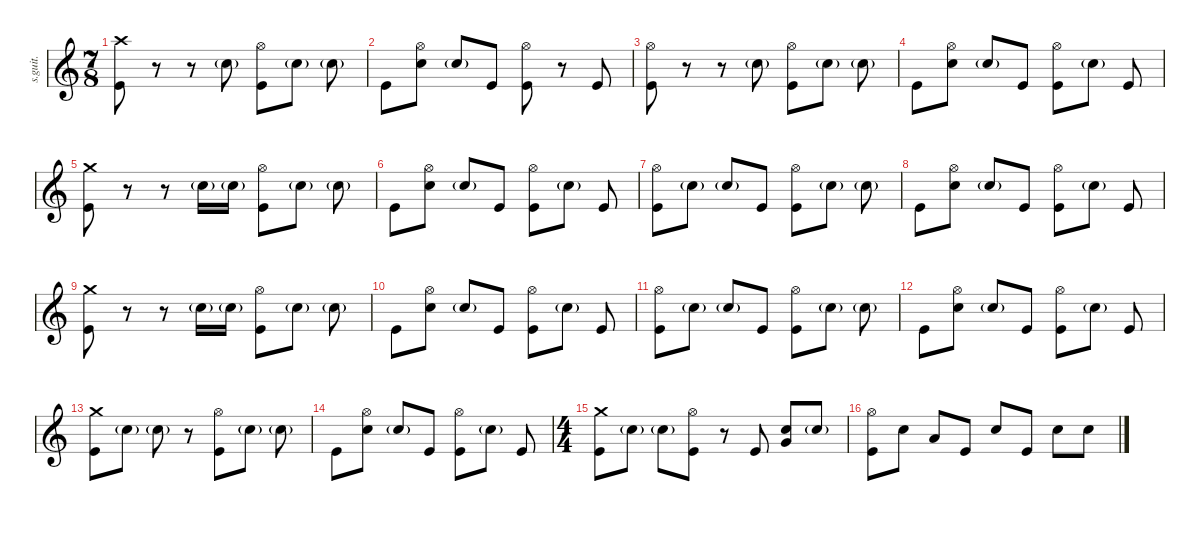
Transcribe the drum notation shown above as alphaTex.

\defaultSystemsLayout 4
\hideDynamics
\bracketExtendMode nobrackets
\track ("Matt Halpern" "s.guit.") {instrument percussion}
\staff {score}
\articulation defaults
\ts (7 8)
\beaming (8 2 2 2 2)
\tempo (213 hide)
\clef g2
\ks c
("Crash high (hit)" "Kick (hit)").8{lyrics (0 "") lyrics (1 "") lyrics (2 "") lyrics (3 "") lyrics (4 "") dy mf} r.8 r.8 "Snare (hit) 2"{g}.8{lyrics (0 "") lyrics (1 "") lyrics (2 "") lyrics (3 "") lyrics (4 "")} ("Hi-Hat (open)" "Kick (hit)").8{lyrics (0 "") lyrics (1 "") lyrics (2 "") lyrics (3 "") lyrics (4 "")} "Snare (hit) 2"{g}.8{lyrics (0 "") lyrics (1 "") lyrics (2 "") lyrics (3 "") lyrics (4 "")} "Snare (hit) 2"{g}.8{lyrics (0 "") lyrics (1 "") lyrics (2 "") lyrics (3 "") lyrics (4 "")} |
"Kick (hit)".8{lyrics (0 "") lyrics (1 "") lyrics (2 "") lyrics (3 "") lyrics (4 "")} ("Snare (hit) 2" "Hi-Hat (open)").8{lyrics (0 "") lyrics (1 "") lyrics (2 "") lyrics (3 "") lyrics (4 "")} "Snare (hit) 2"{g}.8{lyrics (0 "") lyrics (1 "") lyrics (2 "") lyrics (3 "") lyrics (4 "")} "Kick (hit)".8{lyrics (0 "") lyrics (1 "") lyrics (2 "") lyrics (3 "") lyrics (4 "")} ("Hi-Hat (open)" "Kick (hit)").8{lyrics (0 "") lyrics (1 "") lyrics (2 "") lyrics (3 "") lyrics (4 "")} r.8 "Kick (hit)".8{lyrics (0 "") lyrics (1 "") lyrics (2 "") lyrics (3 "") lyrics (4 "")} |
("Hi-Hat (open)" "Kick (hit)").8{lyrics (0 "") lyrics (1 "") lyrics (2 "") lyrics (3 "") lyrics (4 "")} r.8 r.8 "Snare (hit) 2"{g}.8{lyrics (0 "") lyrics (1 "") lyrics (2 "") lyrics (3 "") lyrics (4 "")} ("Hi-Hat (open)" "Kick (hit)").8{lyrics (0 "") lyrics (1 "") lyrics (2 "") lyrics (3 "") lyrics (4 "")} "Snare (hit) 2"{g}.8{lyrics (0 "") lyrics (1 "") lyrics (2 "") lyrics (3 "") lyrics (4 "")} "Snare (hit) 2"{g}.8{lyrics (0 "") lyrics (1 "") lyrics (2 "") lyrics (3 "") lyrics (4 "")} |
"Kick (hit)".8{lyrics (0 "") lyrics (1 "") lyrics (2 "") lyrics (3 "") lyrics (4 "")} ("Snare (hit) 2" "Hi-Hat (open)").8{lyrics (0 "") lyrics (1 "") lyrics (2 "") lyrics (3 "") lyrics (4 "")} "Snare (hit) 2"{g}.8{lyrics (0 "") lyrics (1 "") lyrics (2 "") lyrics (3 "") lyrics (4 "")} "Kick (hit)".8{lyrics (0 "") lyrics (1 "") lyrics (2 "") lyrics (3 "") lyrics (4 "")} ("Hi-Hat (open)" "Kick (hit)").8{lyrics (0 "") lyrics (1 "") lyrics (2 "") lyrics (3 "") lyrics (4 "")} "Snare (hit) 2"{g}.8{lyrics (0 "") lyrics (1 "") lyrics (2 "") lyrics (3 "") lyrics (4 "")} "Kick (hit)".8{lyrics (0 "") lyrics (1 "") lyrics (2 "") lyrics (3 "") lyrics (4 "")} |
("Crash medium (hit)" "Kick (hit)").8{lyrics (0 "") lyrics (1 "") lyrics (2 "") lyrics (3 "") lyrics (4 "")} r.8 r.8 "Snare (hit) 2"{g}.16{lyrics (0 "") lyrics (1 "") lyrics (2 "") lyrics (3 "") lyrics (4 "")} "Snare (hit) 2"{g}.16{lyrics (0 "") lyrics (1 "") lyrics (2 "") lyrics (3 "") lyrics (4 "")} ("Hi-Hat (open)" "Kick (hit)").8{lyrics (0 "") lyrics (1 "") lyrics (2 "") lyrics (3 "") lyrics (4 "")} "Snare (hit) 2"{g}.8{lyrics (0 "") lyrics (1 "") lyrics (2 "") lyrics (3 "") lyrics (4 "")} "Snare (hit) 2"{g}.8{lyrics (0 "") lyrics (1 "") lyrics (2 "") lyrics (3 "") lyrics (4 "")} |
"Kick (hit)".8{lyrics (0 "") lyrics (1 "") lyrics (2 "") lyrics (3 "") lyrics (4 "")} ("Snare (hit) 2" "Hi-Hat (open)").8{lyrics (0 "") lyrics (1 "") lyrics (2 "") lyrics (3 "") lyrics (4 "")} "Snare (hit) 2"{g}.8{lyrics (0 "") lyrics (1 "") lyrics (2 "") lyrics (3 "") lyrics (4 "")} "Kick (hit)".8{lyrics (0 "") lyrics (1 "") lyrics (2 "") lyrics (3 "") lyrics (4 "")} ("Hi-Hat (open)" "Kick (hit)").8{lyrics (0 "") lyrics (1 "") lyrics (2 "") lyrics (3 "") lyrics (4 "")} "Snare (hit) 2"{g}.8{lyrics (0 "") lyrics (1 "") lyrics (2 "") lyrics (3 "") lyrics (4 "")} "Kick (hit)".8{lyrics (0 "") lyrics (1 "") lyrics (2 "") lyrics (3 "") lyrics (4 "")} |
("Hi-Hat (open)" "Kick (hit)").8{lyrics (0 "") lyrics (1 "") lyrics (2 "") lyrics (3 "") lyrics (4 "")} "Snare (hit) 2"{g}.8{lyrics (0 "") lyrics (1 "") lyrics (2 "") lyrics (3 "") lyrics (4 "")} "Snare (hit) 2"{g}.8{lyrics (0 "") lyrics (1 "") lyrics (2 "") lyrics (3 "") lyrics (4 "")} "Kick (hit)".8{lyrics (0 "") lyrics (1 "") lyrics (2 "") lyrics (3 "") lyrics (4 "")} ("Hi-Hat (open)" "Kick (hit)").8{lyrics (0 "") lyrics (1 "") lyrics (2 "") lyrics (3 "") lyrics (4 "")} "Snare (hit) 2"{g}.8{lyrics (0 "") lyrics (1 "") lyrics (2 "") lyrics (3 "") lyrics (4 "")} "Snare (hit) 2"{g}.8{lyrics (0 "") lyrics (1 "") lyrics (2 "") lyrics (3 "") lyrics (4 "")} |
"Kick (hit)".8{lyrics (0 "") lyrics (1 "") lyrics (2 "") lyrics (3 "") lyrics (4 "")} ("Snare (hit) 2" "Hi-Hat (open)").8{lyrics (0 "") lyrics (1 "") lyrics (2 "") lyrics (3 "") lyrics (4 "")} "Snare (hit) 2"{g}.8{lyrics (0 "") lyrics (1 "") lyrics (2 "") lyrics (3 "") lyrics (4 "")} "Kick (hit)".8{lyrics (0 "") lyrics (1 "") lyrics (2 "") lyrics (3 "") lyrics (4 "")} ("Hi-Hat (open)" "Kick (hit)").8{lyrics (0 "") lyrics (1 "") lyrics (2 "") lyrics (3 "") lyrics (4 "")} "Snare (hit) 2"{g}.8{lyrics (0 "") lyrics (1 "") lyrics (2 "") lyrics (3 "") lyrics (4 "")} "Kick (hit)".8{lyrics (0 "") lyrics (1 "") lyrics (2 "") lyrics (3 "") lyrics (4 "")} |
("Crash medium (hit)" "Kick (hit)").8{lyrics (0 "") lyrics (1 "") lyrics (2 "") lyrics (3 "") lyrics (4 "")} r.8 r.8 "Snare (hit) 2"{g}.16{lyrics (0 "") lyrics (1 "") lyrics (2 "") lyrics (3 "") lyrics (4 "")} "Snare (hit) 2"{g}.16{lyrics (0 "") lyrics (1 "") lyrics (2 "") lyrics (3 "") lyrics (4 "")} ("Hi-Hat (open)" "Kick (hit)").8{lyrics (0 "") lyrics (1 "") lyrics (2 "") lyrics (3 "") lyrics (4 "")} "Snare (hit) 2"{g}.8{lyrics (0 "") lyrics (1 "") lyrics (2 "") lyrics (3 "") lyrics (4 "")} "Snare (hit) 2"{g}.8{lyrics (0 "") lyrics (1 "") lyrics (2 "") lyrics (3 "") lyrics (4 "")} |
"Kick (hit)".8{lyrics (0 "") lyrics (1 "") lyrics (2 "") lyrics (3 "") lyrics (4 "")} ("Snare (hit) 2" "Hi-Hat (open)").8{lyrics (0 "") lyrics (1 "") lyrics (2 "") lyrics (3 "") lyrics (4 "")} "Snare (hit) 2"{g}.8{lyrics (0 "") lyrics (1 "") lyrics (2 "") lyrics (3 "") lyrics (4 "")} "Kick (hit)".8{lyrics (0 "") lyrics (1 "") lyrics (2 "") lyrics (3 "") lyrics (4 "")} ("Hi-Hat (open)" "Kick (hit)").8{lyrics (0 "") lyrics (1 "") lyrics (2 "") lyrics (3 "") lyrics (4 "")} "Snare (hit) 2"{g}.8{lyrics (0 "") lyrics (1 "") lyrics (2 "") lyrics (3 "") lyrics (4 "")} "Kick (hit)".8{lyrics (0 "") lyrics (1 "") lyrics (2 "") lyrics (3 "") lyrics (4 "")} |
("Hi-Hat (open)" "Kick (hit)").8{lyrics (0 "") lyrics (1 "") lyrics (2 "") lyrics (3 "") lyrics (4 "")} "Snare (hit) 2"{g}.8{lyrics (0 "") lyrics (1 "") lyrics (2 "") lyrics (3 "") lyrics (4 "")} "Snare (hit) 2"{g}.8{lyrics (0 "") lyrics (1 "") lyrics (2 "") lyrics (3 "") lyrics (4 "")} "Kick (hit)".8{lyrics (0 "") lyrics (1 "") lyrics (2 "") lyrics (3 "") lyrics (4 "")} ("Hi-Hat (open)" "Kick (hit)").8{lyrics (0 "") lyrics (1 "") lyrics (2 "") lyrics (3 "") lyrics (4 "")} "Snare (hit) 2"{g}.8{lyrics (0 "") lyrics (1 "") lyrics (2 "") lyrics (3 "") lyrics (4 "")} "Snare (hit) 2"{g}.8{lyrics (0 "") lyrics (1 "") lyrics (2 "") lyrics (3 "") lyrics (4 "")} |
"Kick (hit)".8{lyrics (0 "") lyrics (1 "") lyrics (2 "") lyrics (3 "") lyrics (4 "")} ("Snare (hit) 2" "Hi-Hat (open)").8{lyrics (0 "") lyrics (1 "") lyrics (2 "") lyrics (3 "") lyrics (4 "")} "Snare (hit) 2"{g}.8{lyrics (0 "") lyrics (1 "") lyrics (2 "") lyrics (3 "") lyrics (4 "")} "Kick (hit)".8{lyrics (0 "") lyrics (1 "") lyrics (2 "") lyrics (3 "") lyrics (4 "")} ("Hi-Hat (open)" "Kick (hit)").8{lyrics (0 "") lyrics (1 "") lyrics (2 "") lyrics (3 "") lyrics (4 "")} "Snare (hit) 2"{g}.8{lyrics (0 "") lyrics (1 "") lyrics (2 "") lyrics (3 "") lyrics (4 "")} "Kick (hit)".8{lyrics (0 "") lyrics (1 "") lyrics (2 "") lyrics (3 "") lyrics (4 "")} |
("Crash medium (hit)" "Kick (hit)").8{lyrics (0 "") lyrics (1 "") lyrics (2 "") lyrics (3 "") lyrics (4 "")} "Snare (hit) 2"{g}.8{lyrics (0 "") lyrics (1 "") lyrics (2 "") lyrics (3 "") lyrics (4 "")} "Snare (hit) 2"{g}.8{lyrics (0 "") lyrics (1 "") lyrics (2 "") lyrics (3 "") lyrics (4 "")} r.8 ("Hi-Hat (open)" "Kick (hit)").8{lyrics (0 "") lyrics (1 "") lyrics (2 "") lyrics (3 "") lyrics (4 "")} "Snare (hit) 2"{g}.8{lyrics (0 "") lyrics (1 "") lyrics (2 "") lyrics (3 "") lyrics (4 "")} "Snare (hit) 2"{g}.8{lyrics (0 "") lyrics (1 "") lyrics (2 "") lyrics (3 "") lyrics (4 "")} |
"Kick (hit)".8{lyrics (0 "") lyrics (1 "") lyrics (2 "") lyrics (3 "") lyrics (4 "")} ("Snare (hit) 2" "Hi-Hat (open)").8{lyrics (0 "") lyrics (1 "") lyrics (2 "") lyrics (3 "") lyrics (4 "")} "Snare (hit) 2"{g}.8{lyrics (0 "") lyrics (1 "") lyrics (2 "") lyrics (3 "") lyrics (4 "")} "Kick (hit)".8{lyrics (0 "") lyrics (1 "") lyrics (2 "") lyrics (3 "") lyrics (4 "")} ("Hi-Hat (open)" "Kick (hit)").8{lyrics (0 "") lyrics (1 "") lyrics (2 "") lyrics (3 "") lyrics (4 "")} "Snare (hit) 2"{g}.8{lyrics (0 "") lyrics (1 "") lyrics (2 "") lyrics (3 "") lyrics (4 "")} "Kick (hit)".8{lyrics (0 "") lyrics (1 "") lyrics (2 "") lyrics (3 "") lyrics (4 "")} |
\ts (4 4)
\beaming (8 2 2 2 2)
("Crash medium (hit)" "Kick (hit)").8{lyrics (0 "") lyrics (1 "") lyrics (2 "") lyrics (3 "") lyrics (4 "")} "Snare (hit) 2"{g}.8{lyrics (0 "") lyrics (1 "") lyrics (2 "") lyrics (3 "") lyrics (4 "")} "Snare (hit) 2"{g}.8{lyrics (0 "") lyrics (1 "") lyrics (2 "") lyrics (3 "") lyrics (4 "")} ("Kick (hit)" "Hi-Hat (open)").8{lyrics (0 "") lyrics (1 "") lyrics (2 "") lyrics (3 "") lyrics (4 "")} r.8 "Kick (hit)".8{lyrics (0 "") lyrics (1 "") lyrics (2 "") lyrics (3 "") lyrics (4 "")} ("Snare (hit) 2" "Very Low Tom (hit)").8{lyrics (0 "") lyrics (1 "") lyrics (2 "") lyrics (3 "") lyrics (4 "")} "Snare (hit) 2"{g}.8{lyrics (0 "") lyrics (1 "") lyrics (2 "") lyrics (3 "") lyrics (4 "")} |
("Hi-Hat (open)" "Kick (hit)").8{lyrics (0 "") lyrics (1 "") lyrics (2 "") lyrics (3 "") lyrics (4 "")} "Snare (hit) 2".8{lyrics (0 "") lyrics (1 "") lyrics (2 "") lyrics (3 "") lyrics (4 "")} "Low Tom (hit)".8{lyrics (0 "") lyrics (1 "") lyrics (2 "") lyrics (3 "") lyrics (4 "")} "Kick (hit)".8{lyrics (0 "") lyrics (1 "") lyrics (2 "") lyrics (3 "") lyrics (4 "")} "Snare (hit) 2".8{lyrics (0 "") lyrics (1 "") lyrics (2 "") lyrics (3 "") lyrics (4 "")} "Kick (hit)".8{lyrics (0 "") lyrics (1 "") lyrics (2 "") lyrics (3 "") lyrics (4 "")} "Snare (hit) 2".8{lyrics (0 "") lyrics (1 "") lyrics (2 "") lyrics (3 "") lyrics (4 "")} "Snare (hit) 2".8{lyrics (0 "") lyrics (1 "") lyrics (2 "") lyrics (3 "") lyrics (4 "")}
